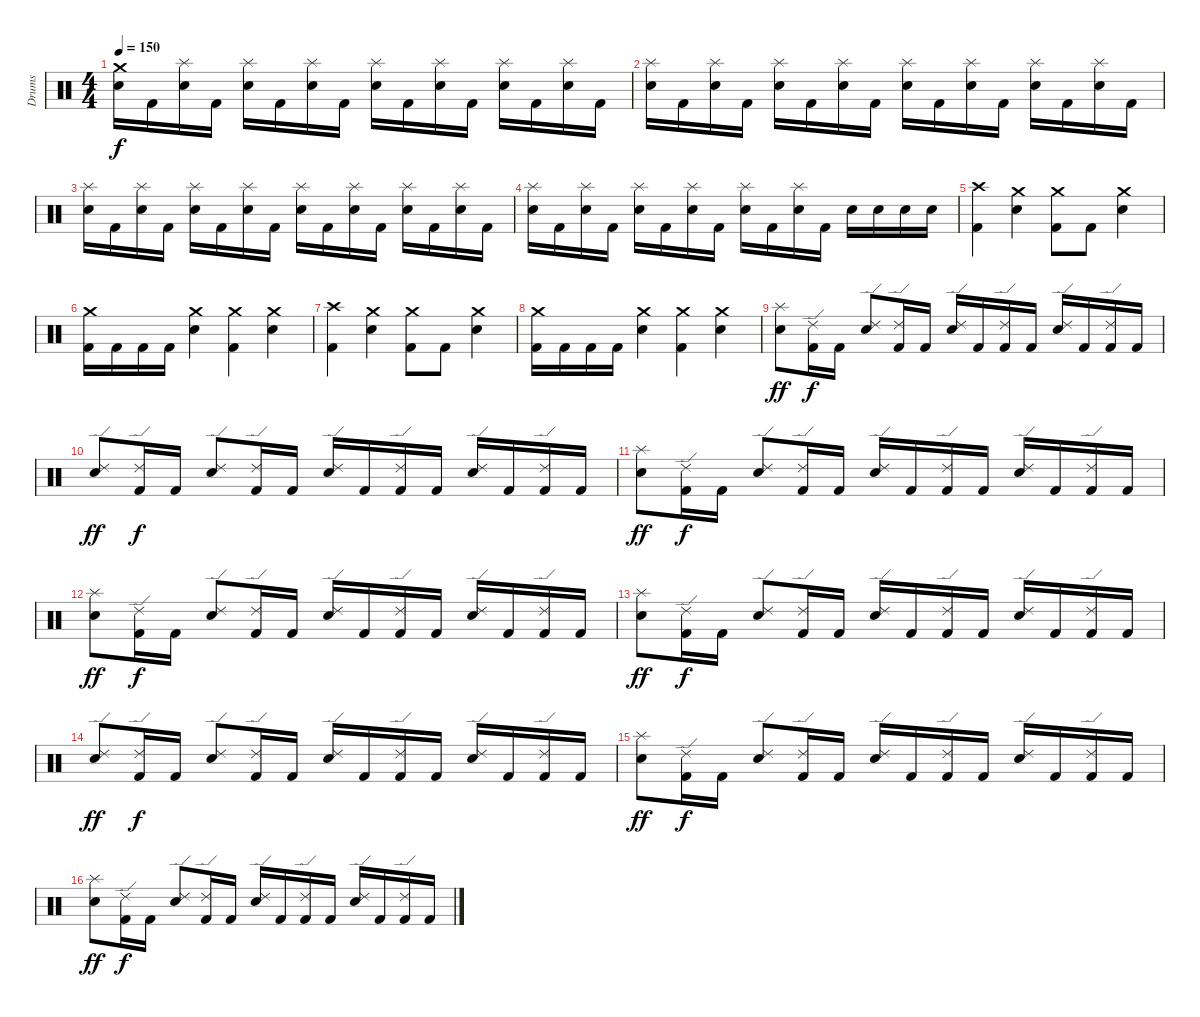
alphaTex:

\track ("Drums" "Drums") {instrument percussion}
\staff {score}
\articulation defaults
\ts (4 4)
\tempo 150
\clef neutral
\ks c
("Crash medium (hit)" "Electric Snare (hit)").16{dy f} "Kick (hit) 2".16 ("Splash (hit)" "Electric Snare (hit)").16 "Kick (hit) 2".16 ("Splash (hit)" "Electric Snare (hit)").16 "Kick (hit) 2".16 ("Splash (hit)" "Electric Snare (hit)").16 "Kick (hit) 2".16 ("Splash (hit)" "Electric Snare (hit)").16 "Kick (hit) 2".16 ("Splash (hit)" "Electric Snare (hit)").16 "Kick (hit) 2".16 ("Splash (hit)" "Electric Snare (hit)").16 "Kick (hit) 2".16 ("Splash (hit)" "Electric Snare (hit)").16 "Kick (hit) 2".16 |
("Splash (hit)" "Electric Snare (hit)").16 "Kick (hit) 2".16 ("Splash (hit)" "Electric Snare (hit)").16 "Kick (hit) 2".16 ("Splash (hit)" "Electric Snare (hit)").16 "Kick (hit) 2".16 ("Splash (hit)" "Electric Snare (hit)").16 "Kick (hit) 2".16 ("Splash (hit)" "Electric Snare (hit)").16 "Kick (hit) 2".16 ("Splash (hit)" "Electric Snare (hit)").16 "Kick (hit) 2".16 ("Splash (hit)" "Electric Snare (hit)").16 "Kick (hit) 2".16 ("Splash (hit)" "Electric Snare (hit)").16 "Kick (hit) 2".16 |
("Splash (hit)" "Electric Snare (hit)").16 "Kick (hit) 2".16 ("Splash (hit)" "Electric Snare (hit)").16 "Kick (hit) 2".16 ("Splash (hit)" "Electric Snare (hit)").16 "Kick (hit) 2".16 ("Splash (hit)" "Electric Snare (hit)").16 "Kick (hit) 2".16 ("Splash (hit)" "Electric Snare (hit)").16 "Kick (hit) 2".16 ("Splash (hit)" "Electric Snare (hit)").16 "Kick (hit) 2".16 ("Splash (hit)" "Electric Snare (hit)").16 "Kick (hit) 2".16 ("Splash (hit)" "Electric Snare (hit)").16 "Kick (hit) 2".16 |
("Splash (hit)" "Electric Snare (hit)").16 "Kick (hit) 2".16 ("Splash (hit)" "Electric Snare (hit)").16 "Kick (hit) 2".16 ("Splash (hit)" "Electric Snare (hit)").16 "Kick (hit) 2".16 ("Splash (hit)" "Electric Snare (hit)").16 "Kick (hit) 2".16 ("Splash (hit)" "Electric Snare (hit)").16 "Kick (hit) 2".16 ("Splash (hit)" "Electric Snare (hit)").16 "Kick (hit) 2".16 "Electric Snare (hit)".16 "Electric Snare (hit)".16 "Electric Snare (hit)".16 "Electric Snare (hit)".16 |
("Crash high (hit)" "Kick (hit) 2").4 ("Crash medium (hit)" "Electric Snare (hit)").4 ("Crash medium (hit)" "Kick (hit) 2").8 "Kick (hit) 2".8 ("Crash medium (hit)" "Electric Snare (hit)").4 |
("Crash medium (hit)" "Kick (hit) 2").16 "Kick (hit) 2".16 "Kick (hit) 2".16 "Kick (hit) 2".16 ("Crash medium (hit)" "Electric Snare (hit)").4 ("Crash medium (hit)" "Kick (hit) 2").4 ("Crash medium (hit)" "Electric Snare (hit)").4 |
("Crash high (hit)" "Kick (hit) 2").4 ("Crash medium (hit)" "Electric Snare (hit)").4 ("Crash medium (hit)" "Kick (hit) 2").8 "Kick (hit) 2".8 ("Crash medium (hit)" "Electric Snare (hit)").4 |
("Crash medium (hit)" "Kick (hit) 2").16 "Kick (hit) 2".16 "Kick (hit) 2".16 "Kick (hit) 2".16 ("Crash medium (hit)" "Electric Snare (hit)").4 ("Crash medium (hit)" "Kick (hit) 2").4 ("Crash medium (hit)" "Electric Snare (hit)").4 |
("Splash (hit)" "Electric Snare (hit)").8{dy ff} ("Ride (edge) 2" "Kick (hit) 2").16{dy f} "Kick (hit) 2".16 ("Ride (edge) 2" "Electric Snare (hit)").8 ("Ride (edge) 2" "Kick (hit) 2").16 "Kick (hit) 2".16 ("Ride (edge) 2" "Electric Snare (hit)").16 "Kick (hit) 2".16 ("Ride (edge) 2" "Kick (hit) 2").16 "Kick (hit) 2".16 ("Ride (edge) 2" "Electric Snare (hit)").16 "Kick (hit) 2".16 ("Ride (edge) 2" "Kick (hit) 2").16 "Kick (hit) 2".16 |
("Ride (edge) 2" "Electric Snare (hit)").8{dy ff} ("Ride (edge) 2" "Kick (hit) 2").16{dy f} "Kick (hit) 2".16 ("Ride (edge) 2" "Electric Snare (hit)").8 ("Ride (edge) 2" "Kick (hit) 2").16 "Kick (hit) 2".16 ("Ride (edge) 2" "Electric Snare (hit)").16 "Kick (hit) 2".16 ("Ride (edge) 2" "Kick (hit) 2").16 "Kick (hit) 2".16 ("Ride (edge) 2" "Electric Snare (hit)").16 "Kick (hit) 2".16 ("Ride (edge) 2" "Kick (hit) 2").16 "Kick (hit) 2".16 |
("Splash (hit)" "Electric Snare (hit)").8{dy ff} ("Ride (edge) 2" "Kick (hit) 2").16{dy f} "Kick (hit) 2".16 ("Ride (edge) 2" "Electric Snare (hit)").8 ("Ride (edge) 2" "Kick (hit) 2").16 "Kick (hit) 2".16 ("Ride (edge) 2" "Electric Snare (hit)").16 "Kick (hit) 2".16 ("Ride (edge) 2" "Kick (hit) 2").16 "Kick (hit) 2".16 ("Ride (edge) 2" "Electric Snare (hit)").16 "Kick (hit) 2".16 ("Ride (edge) 2" "Kick (hit) 2").16 "Kick (hit) 2".16 |
("Splash (hit)" "Electric Snare (hit)").8{dy ff} ("Ride (edge) 2" "Kick (hit) 2").16{dy f} "Kick (hit) 2".16 ("Ride (edge) 2" "Electric Snare (hit)").8 ("Ride (edge) 2" "Kick (hit) 2").16 "Kick (hit) 2".16 ("Ride (edge) 2" "Electric Snare (hit)").16 "Kick (hit) 2".16 ("Ride (edge) 2" "Kick (hit) 2").16 "Kick (hit) 2".16 ("Ride (edge) 2" "Electric Snare (hit)").16 "Kick (hit) 2".16 ("Ride (edge) 2" "Kick (hit) 2").16 "Kick (hit) 2".16 |
("Splash (hit)" "Electric Snare (hit)").8{dy ff} ("Ride (edge) 2" "Kick (hit) 2").16{dy f} "Kick (hit) 2".16 ("Ride (edge) 2" "Electric Snare (hit)").8 ("Ride (edge) 2" "Kick (hit) 2").16 "Kick (hit) 2".16 ("Ride (edge) 2" "Electric Snare (hit)").16 "Kick (hit) 2".16 ("Ride (edge) 2" "Kick (hit) 2").16 "Kick (hit) 2".16 ("Ride (edge) 2" "Electric Snare (hit)").16 "Kick (hit) 2".16 ("Ride (edge) 2" "Kick (hit) 2").16 "Kick (hit) 2".16 |
("Ride (edge) 2" "Electric Snare (hit)").8{dy ff} ("Ride (edge) 2" "Kick (hit) 2").16{dy f} "Kick (hit) 2".16 ("Ride (edge) 2" "Electric Snare (hit)").8 ("Ride (edge) 2" "Kick (hit) 2").16 "Kick (hit) 2".16 ("Ride (edge) 2" "Electric Snare (hit)").16 "Kick (hit) 2".16 ("Ride (edge) 2" "Kick (hit) 2").16 "Kick (hit) 2".16 ("Ride (edge) 2" "Electric Snare (hit)").16 "Kick (hit) 2".16 ("Ride (edge) 2" "Kick (hit) 2").16 "Kick (hit) 2".16 |
("Splash (hit)" "Electric Snare (hit)").8{dy ff} ("Ride (edge) 2" "Kick (hit) 2").16{dy f} "Kick (hit) 2".16 ("Ride (edge) 2" "Electric Snare (hit)").8 ("Ride (edge) 2" "Kick (hit) 2").16 "Kick (hit) 2".16 ("Ride (edge) 2" "Electric Snare (hit)").16 "Kick (hit) 2".16 ("Ride (edge) 2" "Kick (hit) 2").16 "Kick (hit) 2".16 ("Ride (edge) 2" "Electric Snare (hit)").16 "Kick (hit) 2".16 ("Ride (edge) 2" "Kick (hit) 2").16 "Kick (hit) 2".16 |
("Splash (hit)" "Electric Snare (hit)").8{dy ff} ("Ride (edge) 2" "Kick (hit) 2").16{dy f} "Kick (hit) 2".16 ("Ride (edge) 2" "Electric Snare (hit)").8 ("Ride (edge) 2" "Kick (hit) 2").16 "Kick (hit) 2".16 ("Ride (edge) 2" "Electric Snare (hit)").16 "Kick (hit) 2".16 ("Ride (edge) 2" "Kick (hit) 2").16 "Kick (hit) 2".16 ("Ride (edge) 2" "Electric Snare (hit)").16 "Kick (hit) 2".16 ("Ride (edge) 2" "Kick (hit) 2").16 "Kick (hit) 2".16
